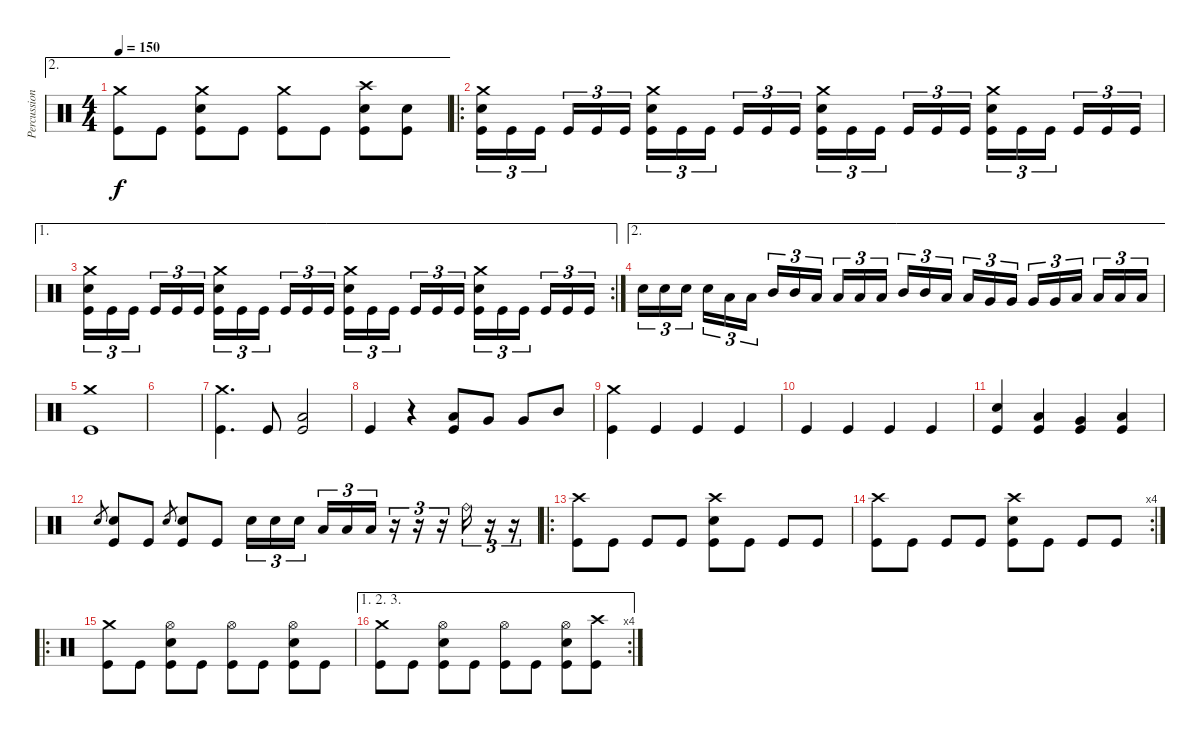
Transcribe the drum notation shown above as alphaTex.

\track ("Percussion" "Percussion") {instrument percussion}
\staff {score}
\articulation defaults
\ae 2
\ts (4 4)
\tempo 150
\clef neutral
\ks c
("Crash medium (hit)" "Kick (hit)").8{dy f} "Kick (hit)".8 ("Crash medium (hit)" "Electric Snare (hit)" "Kick (hit)").8 "Kick (hit)".8 ("Crash medium (hit)" "Kick (hit)").8 "Kick (hit)".8 ("Crash high (hit)" "Electric Snare (hit)" "Kick (hit)").8 ("Electric Snare (hit)" "Kick (hit)").8 |
\ro
("Crash medium (hit)" "Electric Snare (hit)" "Kick (hit)").16{tu (3 2)} "Kick (hit)".16{tu (3 2)} "Kick (hit)".16{tu (3 2) beam splitsecondary} "Kick (hit)".16{tu (3 2)} "Kick (hit)".16{tu (3 2)} "Kick (hit)".16{tu (3 2)} ("Crash medium (hit)" "Electric Snare (hit)" "Kick (hit)").16{tu (3 2)} "Kick (hit)".16{tu (3 2)} "Kick (hit)".16{tu (3 2) beam splitsecondary} "Kick (hit)".16{tu (3 2)} "Kick (hit)".16{tu (3 2)} "Kick (hit)".16{tu (3 2)} ("Crash medium (hit)" "Electric Snare (hit)" "Kick (hit)").16{tu (3 2)} "Kick (hit)".16{tu (3 2)} "Kick (hit)".16{tu (3 2) beam splitsecondary} "Kick (hit)".16{tu (3 2)} "Kick (hit)".16{tu (3 2)} "Kick (hit)".16{tu (3 2)} ("Crash medium (hit)" "Electric Snare (hit)" "Kick (hit)").16{tu (3 2)} "Kick (hit)".16{tu (3 2)} "Kick (hit)".16{tu (3 2) beam splitsecondary} "Kick (hit)".16{tu (3 2)} "Kick (hit)".16{tu (3 2)} "Kick (hit)".16{tu (3 2)} |
\ae 1
\rc 2
("Crash medium (hit)" "Electric Snare (hit)" "Kick (hit)").16{tu (3 2)} "Kick (hit)".16{tu (3 2)} "Kick (hit)".16{tu (3 2) beam splitsecondary} "Kick (hit)".16{tu (3 2)} "Kick (hit)".16{tu (3 2)} "Kick (hit)".16{tu (3 2)} ("Crash medium (hit)" "Electric Snare (hit)" "Kick (hit)").16{tu (3 2)} "Kick (hit)".16{tu (3 2)} "Kick (hit)".16{tu (3 2) beam splitsecondary} "Kick (hit)".16{tu (3 2)} "Kick (hit)".16{tu (3 2)} "Kick (hit)".16{tu (3 2)} ("Crash medium (hit)" "Electric Snare (hit)" "Kick (hit)").16{tu (3 2)} "Kick (hit)".16{tu (3 2)} "Kick (hit)".16{tu (3 2) beam splitsecondary} "Kick (hit)".16{tu (3 2)} "Kick (hit)".16{tu (3 2)} "Kick (hit)".16{tu (3 2)} ("Crash medium (hit)" "Electric Snare (hit)" "Kick (hit)").16{tu (3 2)} "Kick (hit)".16{tu (3 2)} "Kick (hit)".16{tu (3 2) beam splitsecondary} "Kick (hit)".16{tu (3 2)} "Kick (hit)".16{tu (3 2)} "Kick (hit)".16{tu (3 2)} |
\ae 2 "Electric Snare (hit)".16{tu (3 2)} "Electric Snare (hit)".16{tu (3 2)} "Electric Snare (hit)".16{tu (3 2) beam splitsecondary} "Electric Snare (hit)".16{tu (3 2)} "Low Tom (hit)".16{tu (3 2)} "Low Tom (hit)".16{tu (3 2)} "Mid Tom (hit)".16{tu (3 2)} "Mid Tom (hit)".16{tu (3 2)} "Low Floor Tom (hit)".16{tu (3 2) beam splitsecondary} "Low Floor Tom (hit)".16{tu (3 2)} "Low Floor Tom (hit)".16{tu (3 2)} "Low Floor Tom (hit)".16{tu (3 2)} "Mid Tom (hit)".16{tu (3 2)} "Mid Tom (hit)".16{tu (3 2)} "Low Tom (hit)".16{tu (3 2) beam splitsecondary} "Low Tom (hit)".16{tu (3 2)} "Very Low Tom (hit)".16{tu (3 2)} "Very Low Tom (hit)".16{tu (3 2)} "Very Low Tom (hit)".16{tu (3 2)} "Very Low Tom (hit)".16{tu (3 2)} "Low Tom (hit)".16{tu (3 2) beam splitsecondary} "Low Tom (hit)".16{tu (3 2)} "Low Tom (hit)".16{tu (3 2)} "Low Tom (hit)".16{tu (3 2)}
|
("Crash medium (hit)" "Kick (hit)").1 |
|
("Crash medium (hit)" "Kick (hit)").4{d} "Kick (hit)".8 ("Low Floor Tom (hit)" "Kick (hit)").2 |
"Kick (hit)".4 r.4 ("Low Floor Tom (hit)" "Kick (hit)").8 "Very Low Tom (hit)".8 "Very Low Tom (hit)".8 "Mid Tom (hit)".8 |
("Crash medium (hit)" "Kick (hit)").4 "Kick (hit)".4 "Kick (hit)".4 "Kick (hit)".4 |
"Kick (hit)".4 "Kick (hit)".4 "Kick (hit)".4 "Kick (hit)".4 |
("Electric Snare (hit)" "Kick (hit)").4 ("Low Tom (hit)" "Kick (hit)").4 ("Very Low Tom (hit)" "Kick (hit)").4 ("Low Floor Tom (hit)" "Kick (hit)").4 |
"Electric Snare (hit)".8{gr} ("Electric Snare (hit)" "Kick (hit)").8 "Kick (hit)".8 "Electric Snare (hit)".8{gr} ("Electric Snare (hit)" "Kick (hit)").8 "Kick (hit)".8 "Electric Snare (hit)".16{tu (3 2)} "Electric Snare (hit)".16{tu (3 2)} "Electric Snare (hit)".16{tu (3 2) beam splitsecondary} "Low Tom (hit)".16{tu (3 2)} "Low Tom (hit)".16{tu (3 2)} "Low Tom (hit)".16{tu (3 2)} r.16{tu (3 2)} r.16{tu (3 2)} r.16{tu (3 2)} "Ride (bell)".16{tu (3 2)} r.16{tu (3 2)} r.16{tu (3 2)} |
\ro
("Crash high (hit)" "Kick (hit)").8 "Kick (hit)".8 "Kick (hit)".8 "Kick (hit)".8 ("Crash high (hit)" "Electric Snare (hit)" "Kick (hit)").8 "Kick (hit)".8 "Kick (hit)".8 "Kick (hit)".8 |
\rc 4
("Crash high (hit)" "Kick (hit)").8 "Kick (hit)".8 "Kick (hit)".8 "Kick (hit)".8 ("Crash high (hit)" "Electric Snare (hit)" "Kick (hit)").8 "Kick (hit)".8 "Kick (hit)".8 "Kick (hit)".8 |
\ro
("Crash medium (hit)" "Kick (hit)").8 "Kick (hit)".8 ("Hi-Hat (open)" "Electric Snare (hit)" "Kick (hit)").8 "Kick (hit)".8 ("Hi-Hat (open)" "Kick (hit)").8 "Kick (hit)".8 ("Hi-Hat (open)" "Electric Snare (hit)" "Kick (hit)").8 "Kick (hit)".8 |
\ae (1 2 3)
\rc 4
("Crash medium (hit)" "Kick (hit)").8 "Kick (hit)".8 ("Hi-Hat (open)" "Electric Snare (hit)" "Kick (hit)").8 "Kick (hit)".8 ("Hi-Hat (open)" "Kick (hit)").8 "Kick (hit)".8 ("Hi-Hat (open)" "Electric Snare (hit)" "Kick (hit)").8 ("Crash high (hit)" "Kick (hit)").8
